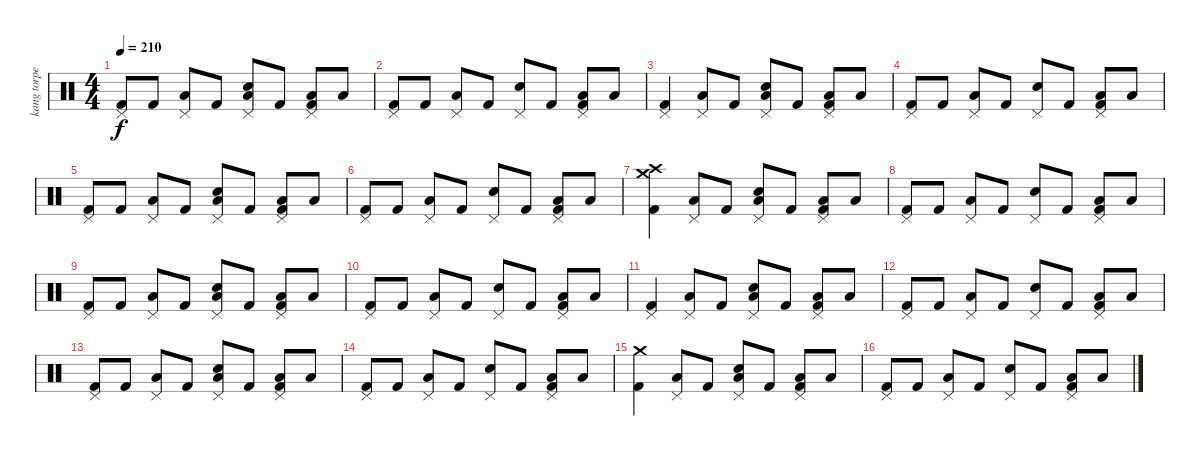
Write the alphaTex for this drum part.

\track ("kang torpey" "kang torpe") {instrument percussion}
\staff {score}
\articulation defaults
\ts (4 4)
\tempo 210
\clef neutral
\ks c
("Pedal Hi-Hat (hit)" "Kick (hit) 2").8{dy f} "Kick (hit) 2".8 ("Pedal Hi-Hat (hit)" "Low Floor Tom (hit)").8 "Kick (hit) 2".8 ("Pedal Hi-Hat (hit)" "Low Floor Tom (hit)" "Electric Snare (hit)").8 "Kick (hit) 2".8 ("Pedal Hi-Hat (hit)" "Low Floor Tom (hit)" "Kick (hit) 2").8 "Low Floor Tom (hit)".8 |
("Pedal Hi-Hat (hit)" "Kick (hit) 2").8 "Kick (hit) 2".8 ("Pedal Hi-Hat (hit)" "Low Floor Tom (hit)").8 "Kick (hit) 2".8 ("Pedal Hi-Hat (hit)" "Electric Snare (hit)").8 "Kick (hit) 2".8 ("Pedal Hi-Hat (hit)" "Low Floor Tom (hit)" "Kick (hit) 2").8 "Low Floor Tom (hit)".8 |
("Pedal Hi-Hat (hit)" "Kick (hit) 2").4 ("Pedal Hi-Hat (hit)" "Low Floor Tom (hit)").8 "Kick (hit) 2".8 ("Pedal Hi-Hat (hit)" "Low Floor Tom (hit)" "Electric Snare (hit)").8 "Kick (hit) 2".8 ("Pedal Hi-Hat (hit)" "Low Floor Tom (hit)" "Kick (hit) 2").8 "Low Floor Tom (hit)".8 |
("Pedal Hi-Hat (hit)" "Kick (hit) 2").8 "Kick (hit) 2".8 ("Pedal Hi-Hat (hit)" "Low Floor Tom (hit)").8 "Kick (hit) 2".8 ("Pedal Hi-Hat (hit)" "Electric Snare (hit)").8 "Kick (hit) 2".8 ("Pedal Hi-Hat (hit)" "Low Floor Tom (hit)" "Kick (hit) 2").8 "Low Floor Tom (hit)".8 |
("Pedal Hi-Hat (hit)" "Kick (hit) 2").8 "Kick (hit) 2".8 ("Pedal Hi-Hat (hit)" "Low Floor Tom (hit)").8 "Kick (hit) 2".8 ("Pedal Hi-Hat (hit)" "Low Floor Tom (hit)" "Electric Snare (hit)").8 "Kick (hit) 2".8 ("Pedal Hi-Hat (hit)" "Low Floor Tom (hit)" "Kick (hit) 2").8 "Low Floor Tom (hit)".8 |
("Pedal Hi-Hat (hit)" "Kick (hit) 2").8 "Kick (hit) 2".8 ("Pedal Hi-Hat (hit)" "Low Floor Tom (hit)").8 "Kick (hit) 2".8 ("Pedal Hi-Hat (hit)" "Electric Snare (hit)").8 "Kick (hit) 2".8 ("Pedal Hi-Hat (hit)" "Low Floor Tom (hit)" "Kick (hit) 2").8 "Low Floor Tom (hit)".8 |
("Crash medium (hit)" "Crash high (hit)" "Kick (hit) 2").4 ("Pedal Hi-Hat (hit)" "Low Floor Tom (hit)").8 "Kick (hit) 2".8 ("Pedal Hi-Hat (hit)" "Low Floor Tom (hit)" "Electric Snare (hit)").8 "Kick (hit) 2".8 ("Pedal Hi-Hat (hit)" "Low Floor Tom (hit)" "Kick (hit) 2").8 "Low Floor Tom (hit)".8 |
("Pedal Hi-Hat (hit)" "Kick (hit) 2").8 "Kick (hit) 2".8 ("Pedal Hi-Hat (hit)" "Low Floor Tom (hit)").8 "Kick (hit) 2".8 ("Pedal Hi-Hat (hit)" "Electric Snare (hit)").8 "Kick (hit) 2".8 ("Pedal Hi-Hat (hit)" "Low Floor Tom (hit)" "Kick (hit) 2").8 "Low Floor Tom (hit)".8 |
("Pedal Hi-Hat (hit)" "Kick (hit) 2").8 "Kick (hit) 2".8 ("Pedal Hi-Hat (hit)" "Low Floor Tom (hit)").8 "Kick (hit) 2".8 ("Pedal Hi-Hat (hit)" "Low Floor Tom (hit)" "Electric Snare (hit)").8 "Kick (hit) 2".8 ("Pedal Hi-Hat (hit)" "Low Floor Tom (hit)" "Kick (hit) 2").8 "Low Floor Tom (hit)".8 |
("Pedal Hi-Hat (hit)" "Kick (hit) 2").8 "Kick (hit) 2".8 ("Pedal Hi-Hat (hit)" "Low Floor Tom (hit)").8 "Kick (hit) 2".8 ("Pedal Hi-Hat (hit)" "Electric Snare (hit)").8 "Kick (hit) 2".8 ("Pedal Hi-Hat (hit)" "Low Floor Tom (hit)" "Kick (hit) 2").8 "Low Floor Tom (hit)".8 |
("Pedal Hi-Hat (hit)" "Kick (hit) 2").4 ("Pedal Hi-Hat (hit)" "Low Floor Tom (hit)").8 "Kick (hit) 2".8 ("Pedal Hi-Hat (hit)" "Low Floor Tom (hit)" "Electric Snare (hit)").8 "Kick (hit) 2".8 ("Pedal Hi-Hat (hit)" "Low Floor Tom (hit)" "Kick (hit) 2").8 "Low Floor Tom (hit)".8 |
("Pedal Hi-Hat (hit)" "Kick (hit) 2").8 "Kick (hit) 2".8 ("Pedal Hi-Hat (hit)" "Low Floor Tom (hit)").8 "Kick (hit) 2".8 ("Pedal Hi-Hat (hit)" "Electric Snare (hit)").8 "Kick (hit) 2".8 ("Pedal Hi-Hat (hit)" "Low Floor Tom (hit)" "Kick (hit) 2").8 "Low Floor Tom (hit)".8 |
("Pedal Hi-Hat (hit)" "Kick (hit) 2").8 "Kick (hit) 2".8 ("Pedal Hi-Hat (hit)" "Low Floor Tom (hit)").8 "Kick (hit) 2".8 ("Pedal Hi-Hat (hit)" "Low Floor Tom (hit)" "Electric Snare (hit)").8 "Kick (hit) 2".8 ("Pedal Hi-Hat (hit)" "Low Floor Tom (hit)" "Kick (hit) 2").8 "Low Floor Tom (hit)".8 |
("Pedal Hi-Hat (hit)" "Kick (hit) 2").8 "Kick (hit) 2".8 ("Pedal Hi-Hat (hit)" "Low Floor Tom (hit)").8 "Kick (hit) 2".8 ("Pedal Hi-Hat (hit)" "Electric Snare (hit)").8 "Kick (hit) 2".8 ("Pedal Hi-Hat (hit)" "Low Floor Tom (hit)" "Kick (hit) 2").8 "Low Floor Tom (hit)".8 |
("Crash medium (hit)" "Kick (hit) 2").4 ("Pedal Hi-Hat (hit)" "Low Floor Tom (hit)").8 "Kick (hit) 2".8 ("Pedal Hi-Hat (hit)" "Low Floor Tom (hit)" "Electric Snare (hit)").8 "Kick (hit) 2".8 ("Pedal Hi-Hat (hit)" "Low Floor Tom (hit)" "Kick (hit) 2").8 "Low Floor Tom (hit)".8 |
("Pedal Hi-Hat (hit)" "Kick (hit) 2").8 "Kick (hit) 2".8 ("Pedal Hi-Hat (hit)" "Low Floor Tom (hit)").8 "Kick (hit) 2".8 ("Pedal Hi-Hat (hit)" "Electric Snare (hit)").8 "Kick (hit) 2".8 ("Pedal Hi-Hat (hit)" "Low Floor Tom (hit)" "Kick (hit) 2").8 "Low Floor Tom (hit)".8
